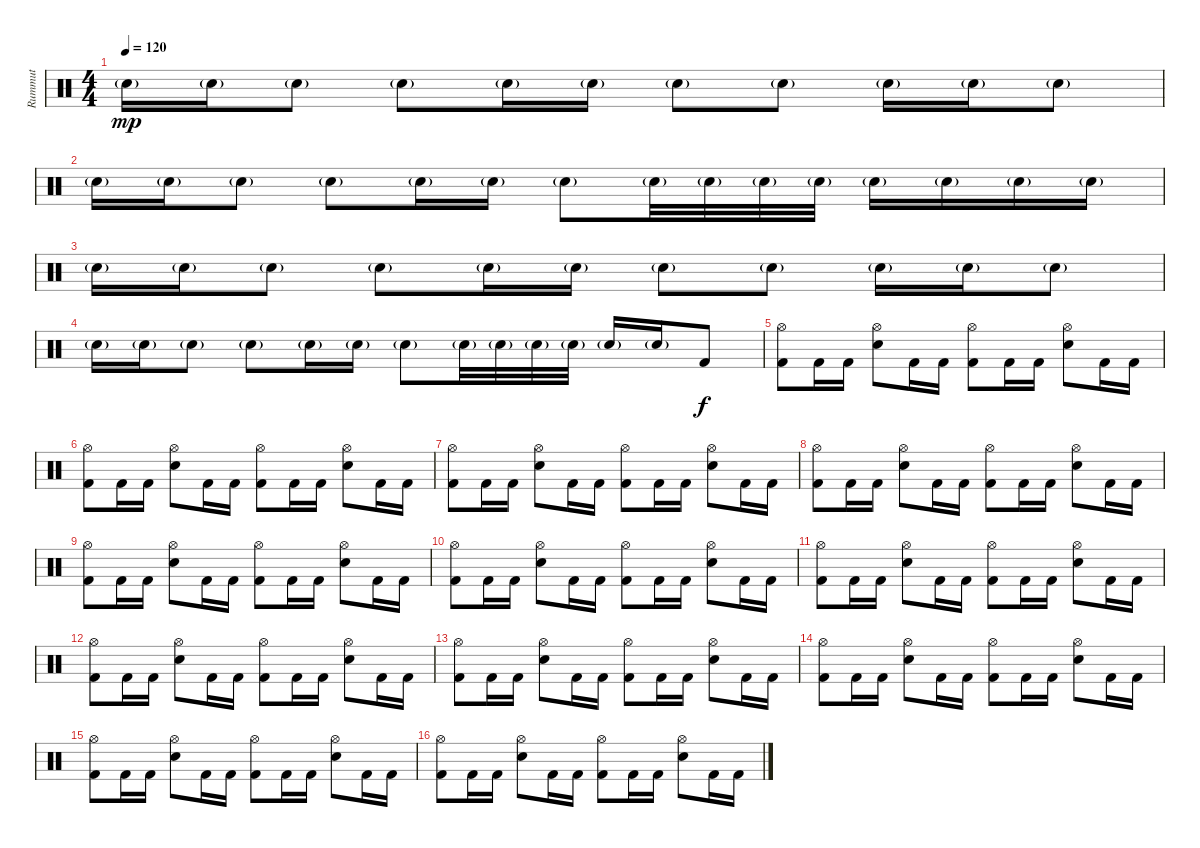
\track ("Rummut" "Rummut") {instrument percussion}
\staff {score}
\articulation defaults
\ts (4 4)
\tempo 120
\clef neutral
\ks c "Snare (hit) 2"{g}.16{dy mp} "Snare (hit) 2"{g}.16 "Snare (hit) 2"{g}.8 "Snare (hit) 2"{g}.8 "Snare (hit) 2"{g}.16 "Snare (hit) 2"{g}.16 "Snare (hit) 2"{g}.8 "Snare (hit) 2"{g}.8 "Snare (hit) 2"{g}.16 "Snare (hit) 2"{g}.16 "Snare (hit) 2"{g}.8
|
"Snare (hit) 2"{g}.16 "Snare (hit) 2"{g}.16 "Snare (hit) 2"{g}.8 "Snare (hit) 2"{g}.8 "Snare (hit) 2"{g}.16 "Snare (hit) 2"{g}.16 "Snare (hit) 2"{g}.8 "Snare (hit) 2"{g}.32 "Snare (hit) 2"{g}.32 "Snare (hit) 2"{g}.32 "Snare (hit) 2"{g}.32 "Snare (hit) 2"{g}.16 "Snare (hit) 2"{g}.16 "Snare (hit) 2"{g}.16 "Snare (hit) 2"{g}.16 |
"Snare (hit) 2"{g}.16 "Snare (hit) 2"{g}.16 "Snare (hit) 2"{g}.8 "Snare (hit) 2"{g}.8 "Snare (hit) 2"{g}.16 "Snare (hit) 2"{g}.16 "Snare (hit) 2"{g}.8 "Snare (hit) 2"{g}.8 "Snare (hit) 2"{g}.16 "Snare (hit) 2"{g}.16 "Snare (hit) 2"{g}.8 |
"Snare (hit) 2"{g}.16 "Snare (hit) 2"{g}.16 "Snare (hit) 2"{g}.8 "Snare (hit) 2"{g}.8 "Snare (hit) 2"{g}.16 "Snare (hit) 2"{g}.16 "Snare (hit) 2"{g}.8 "Snare (hit) 2"{g}.32 "Snare (hit) 2"{g}.32 "Snare (hit) 2"{g}.32 "Snare (hit) 2"{g}.32 "Snare (hit) 2"{g}.16 "Snare (hit) 2"{g}.16 "Kick (hit) 2".8{dy f} |
("Kick (hit) 2" "Hi-Hat (open)").8 "Kick (hit) 2".16 "Kick (hit) 2".16 ("Snare (hit) 2" "Hi-Hat (open)").8 "Kick (hit) 2".16 "Kick (hit) 2".16 ("Kick (hit) 2" "Hi-Hat (open)").8 "Kick (hit) 2".16 "Kick (hit) 2".16 ("Snare (hit) 2" "Hi-Hat (open)").8 "Kick (hit) 2".16 "Kick (hit) 2".16 |
("Kick (hit) 2" "Hi-Hat (open)").8 "Kick (hit) 2".16 "Kick (hit) 2".16 ("Snare (hit) 2" "Hi-Hat (open)").8 "Kick (hit) 2".16 "Kick (hit) 2".16 ("Kick (hit) 2" "Hi-Hat (open)").8 "Kick (hit) 2".16 "Kick (hit) 2".16 ("Snare (hit) 2" "Hi-Hat (open)").8 "Kick (hit) 2".16 "Kick (hit) 2".16 |
("Kick (hit) 2" "Hi-Hat (open)").8 "Kick (hit) 2".16 "Kick (hit) 2".16 ("Snare (hit) 2" "Hi-Hat (open)").8 "Kick (hit) 2".16 "Kick (hit) 2".16 ("Kick (hit) 2" "Hi-Hat (open)").8 "Kick (hit) 2".16 "Kick (hit) 2".16 ("Snare (hit) 2" "Hi-Hat (open)").8 "Kick (hit) 2".16 "Kick (hit) 2".16 |
("Kick (hit) 2" "Hi-Hat (open)").8 "Kick (hit) 2".16 "Kick (hit) 2".16 ("Snare (hit) 2" "Hi-Hat (open)").8 "Kick (hit) 2".16 "Kick (hit) 2".16 ("Kick (hit) 2" "Hi-Hat (open)").8 "Kick (hit) 2".16 "Kick (hit) 2".16 ("Snare (hit) 2" "Hi-Hat (open)").8 "Kick (hit) 2".16 "Kick (hit) 2".16 |
("Kick (hit) 2" "Hi-Hat (open)").8 "Kick (hit) 2".16 "Kick (hit) 2".16 ("Snare (hit) 2" "Hi-Hat (open)").8 "Kick (hit) 2".16 "Kick (hit) 2".16 ("Kick (hit) 2" "Hi-Hat (open)").8 "Kick (hit) 2".16 "Kick (hit) 2".16 ("Snare (hit) 2" "Hi-Hat (open)").8 "Kick (hit) 2".16 "Kick (hit) 2".16 |
("Kick (hit) 2" "Hi-Hat (open)").8 "Kick (hit) 2".16 "Kick (hit) 2".16 ("Snare (hit) 2" "Hi-Hat (open)").8 "Kick (hit) 2".16 "Kick (hit) 2".16 ("Kick (hit) 2" "Hi-Hat (open)").8 "Kick (hit) 2".16 "Kick (hit) 2".16 ("Snare (hit) 2" "Hi-Hat (open)").8 "Kick (hit) 2".16 "Kick (hit) 2".16 |
("Kick (hit) 2" "Hi-Hat (open)").8 "Kick (hit) 2".16 "Kick (hit) 2".16 ("Snare (hit) 2" "Hi-Hat (open)").8 "Kick (hit) 2".16 "Kick (hit) 2".16 ("Kick (hit) 2" "Hi-Hat (open)").8 "Kick (hit) 2".16 "Kick (hit) 2".16 ("Snare (hit) 2" "Hi-Hat (open)").8 "Kick (hit) 2".16 "Kick (hit) 2".16 |
("Kick (hit) 2" "Hi-Hat (open)").8 "Kick (hit) 2".16 "Kick (hit) 2".16 ("Snare (hit) 2" "Hi-Hat (open)").8 "Kick (hit) 2".16 "Kick (hit) 2".16 ("Kick (hit) 2" "Hi-Hat (open)").8 "Kick (hit) 2".16 "Kick (hit) 2".16 ("Snare (hit) 2" "Hi-Hat (open)").8 "Kick (hit) 2".16 "Kick (hit) 2".16 |
("Kick (hit) 2" "Hi-Hat (open)").8 "Kick (hit) 2".16 "Kick (hit) 2".16 ("Snare (hit) 2" "Hi-Hat (open)").8 "Kick (hit) 2".16 "Kick (hit) 2".16 ("Kick (hit) 2" "Hi-Hat (open)").8 "Kick (hit) 2".16 "Kick (hit) 2".16 ("Snare (hit) 2" "Hi-Hat (open)").8 "Kick (hit) 2".16 "Kick (hit) 2".16 |
("Kick (hit) 2" "Hi-Hat (open)").8 "Kick (hit) 2".16 "Kick (hit) 2".16 ("Snare (hit) 2" "Hi-Hat (open)").8 "Kick (hit) 2".16 "Kick (hit) 2".16 ("Kick (hit) 2" "Hi-Hat (open)").8 "Kick (hit) 2".16 "Kick (hit) 2".16 ("Snare (hit) 2" "Hi-Hat (open)").8 "Kick (hit) 2".16 "Kick (hit) 2".16 |
("Kick (hit) 2" "Hi-Hat (open)").8 "Kick (hit) 2".16 "Kick (hit) 2".16 ("Snare (hit) 2" "Hi-Hat (open)").8 "Kick (hit) 2".16 "Kick (hit) 2".16 ("Kick (hit) 2" "Hi-Hat (open)").8 "Kick (hit) 2".16 "Kick (hit) 2".16 ("Snare (hit) 2" "Hi-Hat (open)").8 "Kick (hit) 2".16 "Kick (hit) 2".16 |
("Kick (hit) 2" "Hi-Hat (open)").8 "Kick (hit) 2".16 "Kick (hit) 2".16 ("Snare (hit) 2" "Hi-Hat (open)").8 "Kick (hit) 2".16 "Kick (hit) 2".16 ("Kick (hit) 2" "Hi-Hat (open)").8 "Kick (hit) 2".16 "Kick (hit) 2".16 ("Snare (hit) 2" "Hi-Hat (open)").8 "Kick (hit) 2".16 "Kick (hit) 2".16
